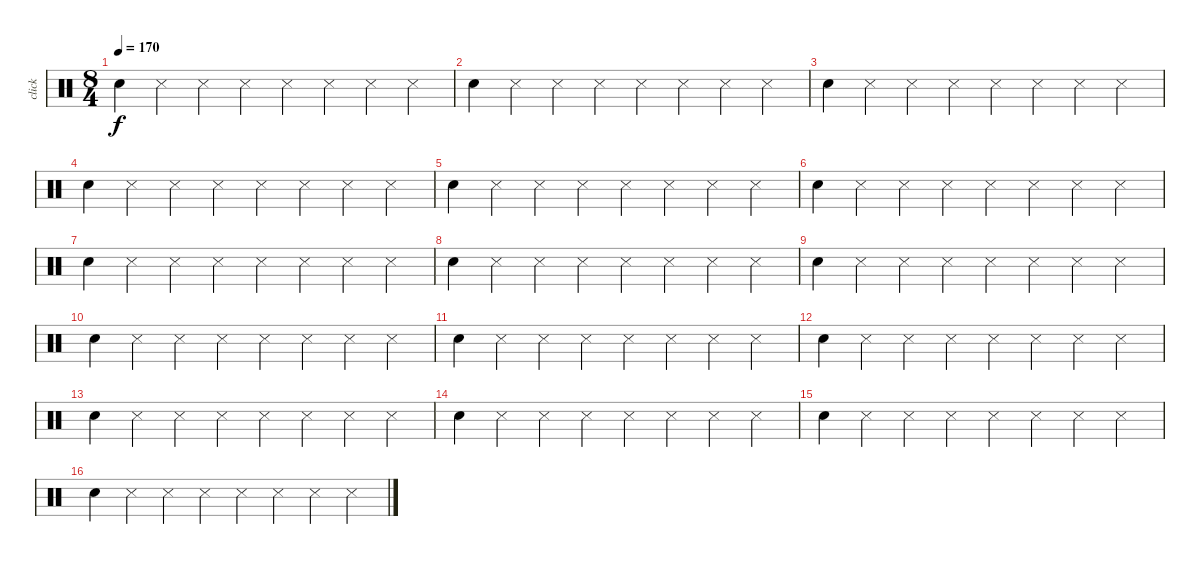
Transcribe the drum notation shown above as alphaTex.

\track ("click" "click") {mute instrument percussion}
\staff {score}
\articulation defaults
\ts (8 4)
\tempo 170
\clef neutral
\ks c "Metronome (bell)".4{dy f} "Metronome (hit)".4 "Metronome (hit)".4 "Metronome (hit)".4 "Metronome (hit)".4 "Metronome (hit)".4 "Metronome (hit)".4 "Metronome (hit)".4
|
"Metronome (bell)".4 "Metronome (hit)".4 "Metronome (hit)".4 "Metronome (hit)".4 "Metronome (hit)".4 "Metronome (hit)".4 "Metronome (hit)".4 "Metronome (hit)".4 |
"Metronome (bell)".4 "Metronome (hit)".4 "Metronome (hit)".4 "Metronome (hit)".4 "Metronome (hit)".4 "Metronome (hit)".4 "Metronome (hit)".4 "Metronome (hit)".4 |
"Metronome (bell)".4 "Metronome (hit)".4 "Metronome (hit)".4 "Metronome (hit)".4 "Metronome (hit)".4 "Metronome (hit)".4 "Metronome (hit)".4 "Metronome (hit)".4 |
"Metronome (bell)".4 "Metronome (hit)".4 "Metronome (hit)".4 "Metronome (hit)".4 "Metronome (hit)".4 "Metronome (hit)".4 "Metronome (hit)".4 "Metronome (hit)".4 |
"Metronome (bell)".4 "Metronome (hit)".4 "Metronome (hit)".4 "Metronome (hit)".4 "Metronome (hit)".4 "Metronome (hit)".4 "Metronome (hit)".4 "Metronome (hit)".4 |
"Metronome (bell)".4 "Metronome (hit)".4 "Metronome (hit)".4 "Metronome (hit)".4 "Metronome (hit)".4 "Metronome (hit)".4 "Metronome (hit)".4 "Metronome (hit)".4 |
"Metronome (bell)".4 "Metronome (hit)".4 "Metronome (hit)".4 "Metronome (hit)".4 "Metronome (hit)".4 "Metronome (hit)".4 "Metronome (hit)".4 "Metronome (hit)".4 |
"Metronome (bell)".4 "Metronome (hit)".4 "Metronome (hit)".4 "Metronome (hit)".4 "Metronome (hit)".4 "Metronome (hit)".4 "Metronome (hit)".4 "Metronome (hit)".4 |
"Metronome (bell)".4 "Metronome (hit)".4 "Metronome (hit)".4 "Metronome (hit)".4 "Metronome (hit)".4 "Metronome (hit)".4 "Metronome (hit)".4 "Metronome (hit)".4 |
"Metronome (bell)".4 "Metronome (hit)".4 "Metronome (hit)".4 "Metronome (hit)".4 "Metronome (hit)".4 "Metronome (hit)".4 "Metronome (hit)".4 "Metronome (hit)".4 |
"Metronome (bell)".4 "Metronome (hit)".4 "Metronome (hit)".4 "Metronome (hit)".4 "Metronome (hit)".4 "Metronome (hit)".4 "Metronome (hit)".4 "Metronome (hit)".4 |
"Metronome (bell)".4 "Metronome (hit)".4 "Metronome (hit)".4 "Metronome (hit)".4 "Metronome (hit)".4 "Metronome (hit)".4 "Metronome (hit)".4 "Metronome (hit)".4 |
"Metronome (bell)".4 "Metronome (hit)".4 "Metronome (hit)".4 "Metronome (hit)".4 "Metronome (hit)".4 "Metronome (hit)".4 "Metronome (hit)".4 "Metronome (hit)".4 |
"Metronome (bell)".4 "Metronome (hit)".4 "Metronome (hit)".4 "Metronome (hit)".4 "Metronome (hit)".4 "Metronome (hit)".4 "Metronome (hit)".4 "Metronome (hit)".4 |
"Metronome (bell)".4 "Metronome (hit)".4 "Metronome (hit)".4 "Metronome (hit)".4 "Metronome (hit)".4 "Metronome (hit)".4 "Metronome (hit)".4 "Metronome (hit)".4
